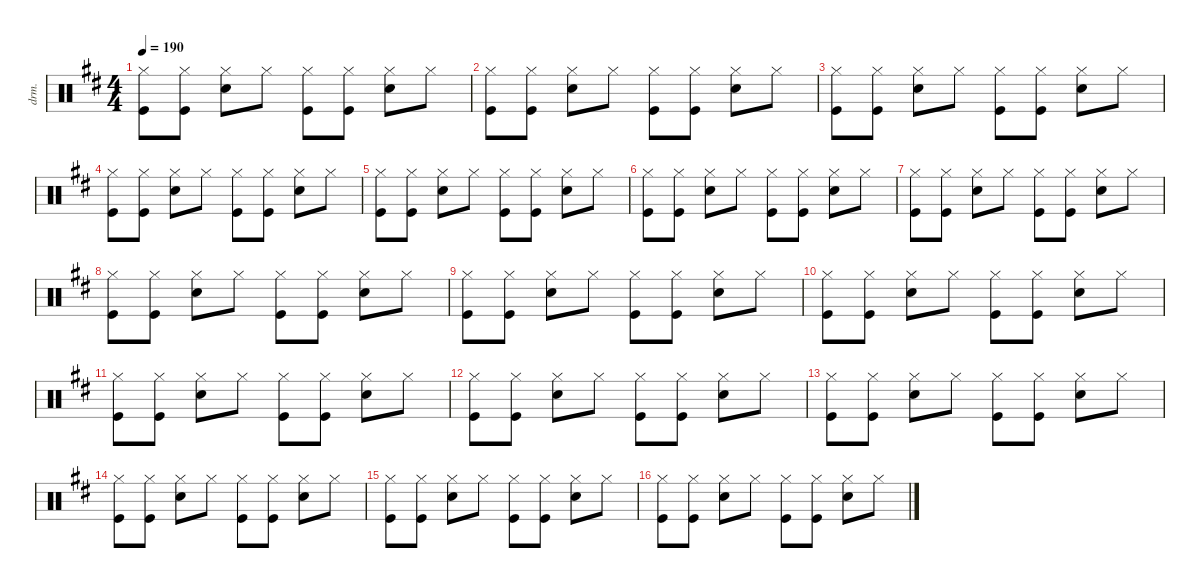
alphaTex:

\defaultSystemsLayout 4
\hideDynamics
\bracketExtendMode nobrackets
\otherSystemsTrackNameOrientation horizontal
\track ("Damon Wilson" "drm.") {instrument percussion}
\staff {score}
\articulation defaults
\ts (4 4)
\tempo 190
\clef neutral
\ks d
("Hi-Hat (closed)"{acc forcenatural} "Kick (hit)"{acc forcenatural}).8{dy f beam Down} ("Hi-Hat (closed)"{acc forcenatural} "Kick (hit)"{acc forcenatural}).8{beam Down} ("Hi-Hat (closed)"{acc forcenatural} "Snare (hit) 2"{acc forcenatural}).8{beam Down} "Hi-Hat (closed)"{acc forcenatural}.8{beam Down} ("Hi-Hat (closed)"{acc forcenatural} "Kick (hit)"{acc forcenatural}).8{beam Down} ("Hi-Hat (closed)"{acc forcenatural} "Kick (hit)"{acc forcenatural}).8{beam Down} ("Hi-Hat (closed)"{acc forcenatural} "Snare (hit) 2"{acc forcenatural}).8{beam Down} "Hi-Hat (closed)"{acc forcenatural}.8{beam Down} |
("Hi-Hat (closed)"{acc forcenatural} "Kick (hit)"{acc forcenatural}).8{beam Down} ("Hi-Hat (closed)"{acc forcenatural} "Kick (hit)"{acc forcenatural}).8{beam Down} ("Hi-Hat (closed)"{acc forcenatural} "Snare (hit) 2"{acc forcenatural}).8{beam Down} "Hi-Hat (closed)"{acc forcenatural}.8{beam Down} ("Hi-Hat (closed)"{acc forcenatural} "Kick (hit)"{acc forcenatural}).8{beam Down} ("Hi-Hat (closed)"{acc forcenatural} "Kick (hit)"{acc forcenatural}).8{beam Down} ("Hi-Hat (closed)"{acc forcenatural} "Snare (hit) 2"{acc forcenatural}).8{beam Down} "Hi-Hat (closed)"{acc forcenatural}.8{beam Down} |
("Hi-Hat (closed)"{acc forcenatural} "Kick (hit)"{acc forcenatural}).8{beam Down} ("Hi-Hat (closed)"{acc forcenatural} "Kick (hit)"{acc forcenatural}).8{beam Down} ("Hi-Hat (closed)"{acc forcenatural} "Snare (hit) 2"{acc forcenatural}).8{beam Down} "Hi-Hat (closed)"{acc forcenatural}.8{beam Down} ("Hi-Hat (closed)"{acc forcenatural} "Kick (hit)"{acc forcenatural}).8{beam Down} ("Hi-Hat (closed)"{acc forcenatural} "Kick (hit)"{acc forcenatural}).8{beam Down} ("Hi-Hat (closed)"{acc forcenatural} "Snare (hit) 2"{acc forcenatural}).8{beam Down} "Hi-Hat (closed)"{acc forcenatural}.8{beam Down} |
("Hi-Hat (closed)"{acc forcenatural} "Kick (hit)"{acc forcenatural}).8{beam Down} ("Hi-Hat (closed)"{acc forcenatural} "Kick (hit)"{acc forcenatural}).8{beam Down} ("Hi-Hat (closed)"{acc forcenatural} "Snare (hit) 2"{acc forcenatural}).8{beam Down} "Hi-Hat (closed)"{acc forcenatural}.8{beam Down} ("Hi-Hat (closed)"{acc forcenatural} "Kick (hit)"{acc forcenatural}).8{beam Down} ("Hi-Hat (closed)"{acc forcenatural} "Kick (hit)"{acc forcenatural}).8{beam Down} ("Hi-Hat (closed)"{acc forcenatural} "Snare (hit) 2"{acc forcenatural}).8{beam Down} "Hi-Hat (closed)"{acc forcenatural}.8{beam Down} |
("Hi-Hat (closed)"{acc forcenatural} "Kick (hit)"{acc forcenatural}).8{beam Down} ("Hi-Hat (closed)"{acc forcenatural} "Kick (hit)"{acc forcenatural}).8{beam Down} ("Hi-Hat (closed)"{acc forcenatural} "Snare (hit) 2"{acc forcenatural}).8{beam Down} "Hi-Hat (closed)"{acc forcenatural}.8{beam Down} ("Hi-Hat (closed)"{acc forcenatural} "Kick (hit)"{acc forcenatural}).8{beam Down} ("Hi-Hat (closed)"{acc forcenatural} "Kick (hit)"{acc forcenatural}).8{beam Down} ("Hi-Hat (closed)"{acc forcenatural} "Snare (hit) 2"{acc forcenatural}).8{beam Down} "Hi-Hat (closed)"{acc forcenatural}.8{beam Down} |
("Hi-Hat (closed)"{acc forcenatural} "Kick (hit)"{acc forcenatural}).8{beam Down} ("Hi-Hat (closed)"{acc forcenatural} "Kick (hit)"{acc forcenatural}).8{beam Down} ("Hi-Hat (closed)"{acc forcenatural} "Snare (hit) 2"{acc forcenatural}).8{beam Down} "Hi-Hat (closed)"{acc forcenatural}.8{beam Down} ("Hi-Hat (closed)"{acc forcenatural} "Kick (hit)"{acc forcenatural}).8{beam Down} ("Hi-Hat (closed)"{acc forcenatural} "Kick (hit)"{acc forcenatural}).8{beam Down} ("Hi-Hat (closed)"{acc forcenatural} "Snare (hit) 2"{acc forcenatural}).8{beam Down} "Hi-Hat (closed)"{acc forcenatural}.8{beam Down} |
("Hi-Hat (closed)"{acc forcenatural} "Kick (hit)"{acc forcenatural}).8{beam Down} ("Hi-Hat (closed)"{acc forcenatural} "Kick (hit)"{acc forcenatural}).8{beam Down} ("Hi-Hat (closed)"{acc forcenatural} "Snare (hit) 2"{acc forcenatural}).8{beam Down} "Hi-Hat (closed)"{acc forcenatural}.8{beam Down} ("Hi-Hat (closed)"{acc forcenatural} "Kick (hit)"{acc forcenatural}).8{beam Down} ("Hi-Hat (closed)"{acc forcenatural} "Kick (hit)"{acc forcenatural}).8{beam Down} ("Hi-Hat (closed)"{acc forcenatural} "Snare (hit) 2"{acc forcenatural}).8{beam Down} "Hi-Hat (closed)"{acc forcenatural}.8{beam Down} |
("Hi-Hat (closed)"{acc forcenatural} "Kick (hit)"{acc forcenatural}).8{beam Down} ("Hi-Hat (closed)"{acc forcenatural} "Kick (hit)"{acc forcenatural}).8{beam Down} ("Hi-Hat (closed)"{acc forcenatural} "Snare (hit) 2"{acc forcenatural}).8{beam Down} "Hi-Hat (closed)"{acc forcenatural}.8{beam Down} ("Hi-Hat (closed)"{acc forcenatural} "Kick (hit)"{acc forcenatural}).8{beam Down} ("Hi-Hat (closed)"{acc forcenatural} "Kick (hit)"{acc forcenatural}).8{beam Down} ("Hi-Hat (closed)"{acc forcenatural} "Snare (hit) 2"{acc forcenatural}).8{beam Down} "Hi-Hat (closed)"{acc forcenatural}.8{beam Down} |
("Hi-Hat (closed)"{acc forcenatural} "Kick (hit)"{acc forcenatural}).8{beam Down} ("Hi-Hat (closed)"{acc forcenatural} "Kick (hit)"{acc forcenatural}).8{beam Down} ("Hi-Hat (closed)"{acc forcenatural} "Snare (hit) 2"{acc forcenatural}).8{beam Down} "Hi-Hat (closed)"{acc forcenatural}.8{beam Down} ("Hi-Hat (closed)"{acc forcenatural} "Kick (hit)"{acc forcenatural}).8{beam Down} ("Hi-Hat (closed)"{acc forcenatural} "Kick (hit)"{acc forcenatural}).8{beam Down} ("Hi-Hat (closed)"{acc forcenatural} "Snare (hit) 2"{acc forcenatural}).8{beam Down} "Hi-Hat (closed)"{acc forcenatural}.8{beam Down} |
("Hi-Hat (closed)"{acc forcenatural} "Kick (hit)"{acc forcenatural}).8{beam Down} ("Hi-Hat (closed)"{acc forcenatural} "Kick (hit)"{acc forcenatural}).8{beam Down} ("Hi-Hat (closed)"{acc forcenatural} "Snare (hit) 2"{acc forcenatural}).8{beam Down} "Hi-Hat (closed)"{acc forcenatural}.8{beam Down} ("Hi-Hat (closed)"{acc forcenatural} "Kick (hit)"{acc forcenatural}).8{beam Down} ("Hi-Hat (closed)"{acc forcenatural} "Kick (hit)"{acc forcenatural}).8{beam Down} ("Hi-Hat (closed)"{acc forcenatural} "Snare (hit) 2"{acc forcenatural}).8{beam Down} "Hi-Hat (closed)"{acc forcenatural}.8{beam Down} |
("Hi-Hat (closed)"{acc forcenatural} "Kick (hit)"{acc forcenatural}).8{beam Down} ("Hi-Hat (closed)"{acc forcenatural} "Kick (hit)"{acc forcenatural}).8{beam Down} ("Hi-Hat (closed)"{acc forcenatural} "Snare (hit) 2"{acc forcenatural}).8{beam Down} "Hi-Hat (closed)"{acc forcenatural}.8{beam Down} ("Hi-Hat (closed)"{acc forcenatural} "Kick (hit)"{acc forcenatural}).8{beam Down} ("Hi-Hat (closed)"{acc forcenatural} "Kick (hit)"{acc forcenatural}).8{beam Down} ("Hi-Hat (closed)"{acc forcenatural} "Snare (hit) 2"{acc forcenatural}).8{beam Down} "Hi-Hat (closed)"{acc forcenatural}.8{beam Down} |
("Hi-Hat (closed)"{acc forcenatural} "Kick (hit)"{acc forcenatural}).8{beam Down} ("Hi-Hat (closed)"{acc forcenatural} "Kick (hit)"{acc forcenatural}).8{beam Down} ("Hi-Hat (closed)"{acc forcenatural} "Snare (hit) 2"{acc forcenatural}).8{beam Down} "Hi-Hat (closed)"{acc forcenatural}.8{beam Down} ("Hi-Hat (closed)"{acc forcenatural} "Kick (hit)"{acc forcenatural}).8{beam Down} ("Hi-Hat (closed)"{acc forcenatural} "Kick (hit)"{acc forcenatural}).8{beam Down} ("Hi-Hat (closed)"{acc forcenatural} "Snare (hit) 2"{acc forcenatural}).8{beam Down} "Hi-Hat (closed)"{acc forcenatural}.8{beam Down} |
("Hi-Hat (closed)"{acc forcenatural} "Kick (hit)"{acc forcenatural}).8{beam Down} ("Hi-Hat (closed)"{acc forcenatural} "Kick (hit)"{acc forcenatural}).8{beam Down} ("Hi-Hat (closed)"{acc forcenatural} "Snare (hit) 2"{acc forcenatural}).8{beam Down} "Hi-Hat (closed)"{acc forcenatural}.8{beam Down} ("Hi-Hat (closed)"{acc forcenatural} "Kick (hit)"{acc forcenatural}).8{beam Down} ("Hi-Hat (closed)"{acc forcenatural} "Kick (hit)"{acc forcenatural}).8{beam Down} ("Hi-Hat (closed)"{acc forcenatural} "Snare (hit) 2"{acc forcenatural}).8{beam Down} "Hi-Hat (closed)"{acc forcenatural}.8{beam Down} |
("Hi-Hat (closed)"{acc forcenatural} "Kick (hit)"{acc forcenatural}).8{beam Down} ("Hi-Hat (closed)"{acc forcenatural} "Kick (hit)"{acc forcenatural}).8{beam Down} ("Hi-Hat (closed)"{acc forcenatural} "Snare (hit) 2"{acc forcenatural}).8{beam Down} "Hi-Hat (closed)"{acc forcenatural}.8{beam Down} ("Hi-Hat (closed)"{acc forcenatural} "Kick (hit)"{acc forcenatural}).8{beam Down} ("Hi-Hat (closed)"{acc forcenatural} "Kick (hit)"{acc forcenatural}).8{beam Down} ("Hi-Hat (closed)"{acc forcenatural} "Snare (hit) 2"{acc forcenatural}).8{beam Down} "Hi-Hat (closed)"{acc forcenatural}.8{beam Down} |
("Hi-Hat (closed)"{acc forcenatural} "Kick (hit)"{acc forcenatural}).8{beam Down} ("Hi-Hat (closed)"{acc forcenatural} "Kick (hit)"{acc forcenatural}).8{beam Down} ("Hi-Hat (closed)"{acc forcenatural} "Snare (hit) 2"{acc forcenatural}).8{beam Down} "Hi-Hat (closed)"{acc forcenatural}.8{beam Down} ("Hi-Hat (closed)"{acc forcenatural} "Kick (hit)"{acc forcenatural}).8{beam Down} ("Hi-Hat (closed)"{acc forcenatural} "Kick (hit)"{acc forcenatural}).8{beam Down} ("Hi-Hat (closed)"{acc forcenatural} "Snare (hit) 2"{acc forcenatural}).8{beam Down} "Hi-Hat (closed)"{acc forcenatural}.8{beam Down} |
("Hi-Hat (closed)"{acc forcenatural} "Kick (hit)"{acc forcenatural}).8{beam Down} ("Hi-Hat (closed)"{acc forcenatural} "Kick (hit)"{acc forcenatural}).8{beam Down} ("Hi-Hat (closed)"{acc forcenatural} "Snare (hit) 2"{acc forcenatural}).8{beam Down} "Hi-Hat (closed)"{acc forcenatural}.8{beam Down} ("Hi-Hat (closed)"{acc forcenatural} "Kick (hit)"{acc forcenatural}).8{beam Down} ("Hi-Hat (closed)"{acc forcenatural} "Kick (hit)"{acc forcenatural}).8{beam Down} ("Hi-Hat (closed)"{acc forcenatural} "Snare (hit) 2"{acc forcenatural}).8{beam Down} "Hi-Hat (closed)"{acc forcenatural}.8{beam Down}
